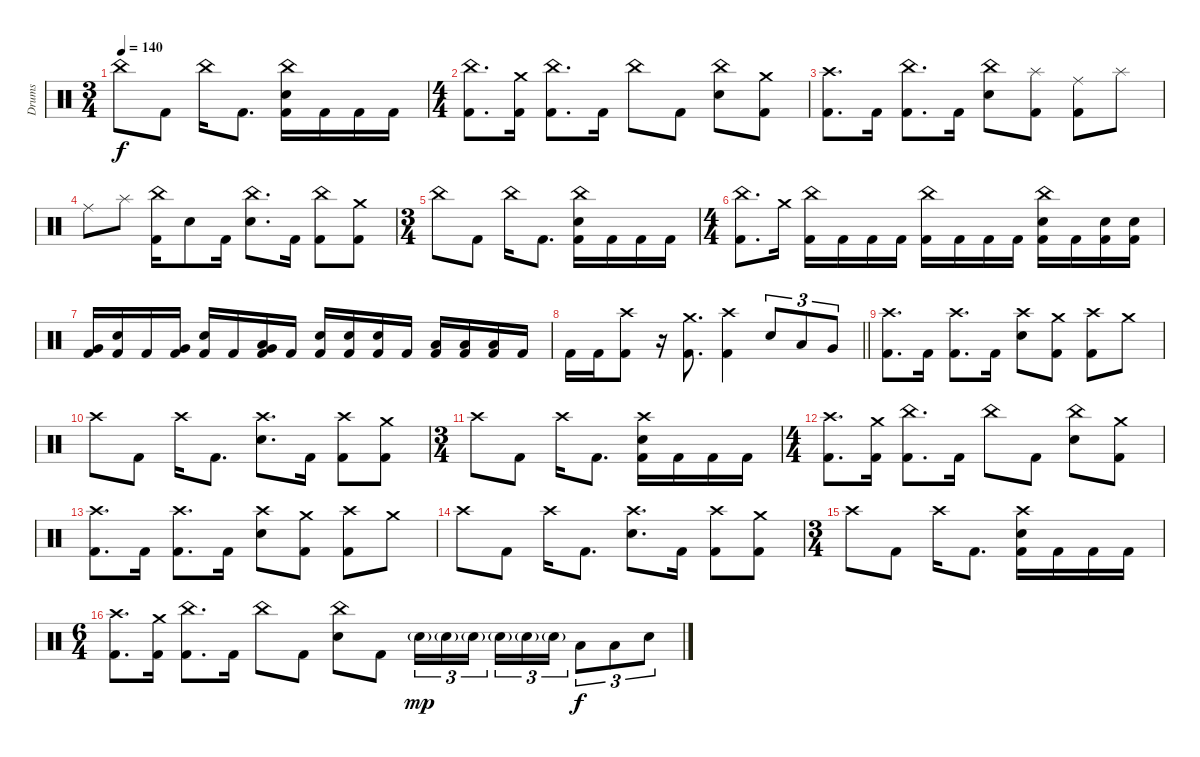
\track ("Drums" "Drums") {instrument percussion}
\staff {score}
\articulation defaults
\ts (3 4)
\tempo 140
\clef neutral
\ks c "China (hit)".8{dy f} "Kick (hit) 2".8 "China (hit)".16 "Kick (hit) 2".8{d}
("China (hit)" "Electric Snare (hit)" "Kick (hit) 2").16 "Kick (hit) 2".16 "Kick (hit) 2".16 "Kick (hit) 2".16 |
\ts (4 4)
("China (hit)" "Kick (hit) 2").8{d} ("Crash medium (hit)" "Kick (hit) 2").16 ("China (hit)" "Kick (hit) 2").8{d} "Kick (hit) 2".16 "China (hit)".8 "Kick (hit) 2".8 ("China (hit)" "Electric Snare (hit)").8 ("Crash medium (hit)" "Kick (hit) 2").8 |
("Crash high (hit)" "Kick (hit) 2").8{d} "Kick (hit) 2".16 ("China (hit)" "Kick (hit) 2").8{d} "Kick (hit) 2".16 ("China (hit)" "Electric Snare (hit)").8 ("Splash (hit)" "Kick (hit) 2").8 ("Ride (middle)" "Kick (hit) 2").8 "Splash (hit)".8 |
"Ride (middle)".8 "Splash (hit)".8 ("China (hit)" "Kick (hit) 2").16 "Electric Snare (hit)".8 "Kick (hit) 2".16 ("China (hit)" "Electric Snare (hit)").8{d} "Kick (hit) 2".16 ("China (hit)" "Kick (hit) 2").8 ("Crash medium (hit)" "Kick (hit) 2").8 |
\ts (3 4)
"China (hit)".8 "Kick (hit) 2".8 "China (hit)".16 "Kick (hit) 2".8{d} ("China (hit)" "Electric Snare (hit)" "Kick (hit) 2").16 "Kick (hit) 2".16 "Kick (hit) 2".16 "Kick (hit) 2".16 |
\ts (4 4)
("China (hit)" "Kick (hit) 2").8{d} "Crash medium (hit)".16 ("China (hit)" "Kick (hit) 2").16 "Kick (hit) 2".16 "Kick (hit) 2".16 "Kick (hit) 2".16 ("China (hit)" "Kick (hit) 2").16 "Kick (hit) 2".16 "Kick (hit) 2".16 "Kick (hit) 2".16 ("China (hit)" "Electric Snare (hit)" "Kick (hit) 2").16 "Kick (hit) 2".16 ("Electric Snare (hit)" "Kick (hit) 2").16 ("Electric Snare (hit)" "Kick (hit) 2").16 |
("Very Low Tom (hit)" "Kick (hit) 2").16 ("Electric Snare (hit)" "Kick (hit) 2").16 "Kick (hit) 2".16 ("Very Low Tom (hit)" "Kick (hit) 2").16 ("Electric Snare (hit)" "Kick (hit) 2").16 "Kick (hit) 2".16 ("Very Low Tom (hit)" "Low Floor Tom (hit)" "Kick (hit) 2").16 "Kick (hit) 2".16 ("Electric Snare (hit)" "Kick (hit) 2").16 ("Electric Snare (hit)" "Kick (hit) 2").16 ("Electric Snare (hit)" "Kick (hit) 2").16 "Kick (hit) 2".16 ("Low Floor Tom (hit)" "Kick (hit) 2").16 ("Low Floor Tom (hit)" "Kick (hit) 2").16 ("Low Floor Tom (hit)" "Kick (hit) 2").16 "Kick (hit) 2".16 |
\barLineRight lightlight "Kick (hit) 2".16 "Kick (hit) 2".16
("Crash high (hit)" "Kick (hit) 2").8 r.16 ("Crash medium (hit)" "Kick (hit) 2").8{d} ("Crash high (hit)" "Kick (hit) 2").4 "Electric Snare (hit)".8{tu (3 2)} "Low Tom (hit)".8{tu (3 2)} "Very Low Tom (hit)".8{tu (3 2)} |
("Crash high (hit)" "Kick (hit) 2").8{d} "Kick (hit) 2".16 ("Crash high (hit)" "Kick (hit) 2").8{d} "Kick (hit) 2".16 ("Crash high (hit)" "Electric Snare (hit)").8 ("Crash medium (hit)" "Kick (hit) 2").8 ("Crash high (hit)" "Kick (hit) 2").8 "Crash medium (hit)".8 |
"Crash high (hit)".8 "Kick (hit) 2".8 "Crash high (hit)".16 "Kick (hit) 2".8{d} ("Crash high (hit)" "Electric Snare (hit)").8{d} "Kick (hit) 2".16 ("Crash high (hit)" "Kick (hit) 2").8 ("Crash medium (hit)" "Kick (hit) 2").8 |
\ts (3 4)
"Crash high (hit)".8 "Kick (hit) 2".8 "Crash high (hit)".16 "Kick (hit) 2".8{d} ("Crash high (hit)" "Electric Snare (hit)" "Kick (hit) 2").16 "Kick (hit) 2".16 "Kick (hit) 2".16 "Kick (hit) 2".16 |
\ts (4 4)
("Crash high (hit)" "Kick (hit) 2").8{d} ("Crash medium (hit)" "Kick (hit) 2").16 ("China (hit)" "Kick (hit) 2").8{d} "Kick (hit) 2".16 "China (hit)".8 "Kick (hit) 2".8 ("China (hit)" "Electric Snare (hit)").8 ("Crash medium (hit)" "Kick (hit) 2").8 |
("Crash high (hit)" "Kick (hit) 2").8{d} "Kick (hit) 2".16 ("Crash high (hit)" "Kick (hit) 2").8{d} "Kick (hit) 2".16 ("Crash high (hit)" "Electric Snare (hit)").8 ("Crash medium (hit)" "Kick (hit) 2").8 ("Crash high (hit)" "Kick (hit) 2").8 "Crash medium (hit)".8 |
"Crash high (hit)".8 "Kick (hit) 2".8 "Crash high (hit)".16 "Kick (hit) 2".8{d} ("Crash high (hit)" "Electric Snare (hit)").8{d} "Kick (hit) 2".16 ("Crash high (hit)" "Kick (hit) 2").8 ("Crash medium (hit)" "Kick (hit) 2").8 |
\ts (3 4)
"Crash high (hit)".8 "Kick (hit) 2".8 "Crash high (hit)".16 "Kick (hit) 2".8{d} ("Crash high (hit)" "Electric Snare (hit)" "Kick (hit) 2").16 "Kick (hit) 2".16 "Kick (hit) 2".16 "Kick (hit) 2".16 |
\ts (6 4)
("Crash high (hit)" "Kick (hit) 2").8{d} ("Crash medium (hit)" "Kick (hit) 2").16 ("China (hit)" "Kick (hit) 2").8{d} "Kick (hit) 2".16 "China (hit)".8 "Kick (hit) 2".8 ("China (hit)" "Electric Snare (hit)").8 "Kick (hit) 2".8 "Electric Snare (hit)"{g}.16{tu (3 2) dy mp} "Electric Snare (hit)"{g}.16{tu (3 2)} "Electric Snare (hit)"{g}.16{tu (3 2) beam splitsecondary} "Electric Snare (hit)"{g}.16{tu (3 2)} "Electric Snare (hit)"{g}.16{tu (3 2)} "Electric Snare (hit)"{g}.16{tu (3 2)} "Low Tom (hit)".8{tu (3 2) dy f} "Low Tom (hit)".8{tu (3 2)} "Electric Snare (hit)".8{tu (3 2)}
